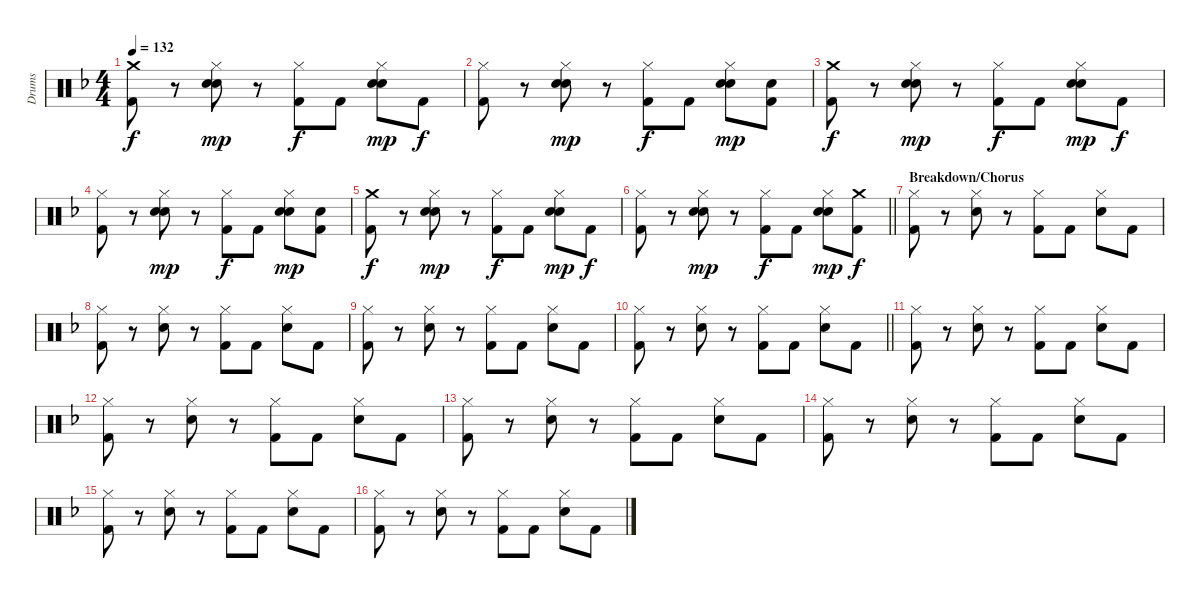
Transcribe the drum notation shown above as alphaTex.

\track ("Drums" "Drums") {instrument percussion}
\staff {score}
\articulation defaults
\ts (4 4)
\tempo 132
\clef neutral
\ks f
("Crash medium (hit)" "Kick (hit) 2").8{dy f} r.8 ("Hi-Hat (closed)" "Hand Clap (hit)" "Snare (hit) 2").8{dy mp} r.8 ("Hi-Hat (closed)" "Kick (hit) 2").8{dy f} "Kick (hit) 2".8 ("Hi-Hat (closed)" "Hand Clap (hit)" "Snare (hit) 2").8{dy mp} "Kick (hit) 2".8{dy f} |
("Hi-Hat (closed)" "Kick (hit) 2").8 r.8 ("Hi-Hat (closed)" "Hand Clap (hit)" "Snare (hit) 2").8{dy mp} r.8 ("Hi-Hat (closed)" "Kick (hit) 2").8{dy f} "Kick (hit) 2".8 ("Hi-Hat (closed)" "Hand Clap (hit)" "Snare (hit) 2").8{dy mp} ("Hand Clap (hit)" "Kick (hit) 2").8 |
("Crash medium (hit)" "Kick (hit) 2").8{dy f} r.8 ("Hi-Hat (closed)" "Hand Clap (hit)" "Snare (hit) 2").8{dy mp} r.8 ("Hi-Hat (closed)" "Kick (hit) 2").8{dy f} "Kick (hit) 2".8 ("Hi-Hat (closed)" "Hand Clap (hit)" "Snare (hit) 2").8{dy mp} "Kick (hit) 2".8{dy f} |
("Hi-Hat (closed)" "Kick (hit) 2").8 r.8 ("Hi-Hat (closed)" "Hand Clap (hit)" "Snare (hit) 2").8{dy mp} r.8 ("Hi-Hat (closed)" "Kick (hit) 2").8{dy f} "Kick (hit) 2".8 ("Hi-Hat (closed)" "Hand Clap (hit)" "Snare (hit) 2").8{dy mp} ("Hand Clap (hit)" "Kick (hit) 2").8 |
("Crash medium (hit)" "Kick (hit) 2").8{dy f} r.8 ("Hi-Hat (closed)" "Hand Clap (hit)" "Snare (hit) 2").8{dy mp} r.8 ("Hi-Hat (closed)" "Kick (hit) 2").8{dy f} "Kick (hit) 2".8 ("Hi-Hat (closed)" "Hand Clap (hit)" "Snare (hit) 2").8{dy mp} "Kick (hit) 2".8{dy f} |
\barLineRight lightlight
("Hi-Hat (closed)" "Kick (hit) 2").8 r.8 ("Hi-Hat (closed)" "Hand Clap (hit)" "Snare (hit) 2").8{dy mp} r.8 ("Hi-Hat (closed)" "Kick (hit) 2").8{dy f} "Kick (hit) 2".8 ("Hi-Hat (closed)" "Hand Clap (hit)" "Snare (hit) 2").8{dy mp} ("Crash medium (hit)" "Kick (hit) 2").8{dy f} |
\section ("" "Breakdown/Chorus")
("Hi-Hat (closed)" "Kick (hit) 2").8 r.8 ("Hi-Hat (closed)" "Snare (hit) 2").8 r.8 ("Hi-Hat (closed)" "Kick (hit) 2").8 "Kick (hit) 2".8 ("Hi-Hat (closed)" "Snare (hit) 2").8 "Kick (hit) 2".8 |
("Hi-Hat (closed)" "Kick (hit) 2").8 r.8 ("Hi-Hat (closed)" "Snare (hit) 2").8 r.8 ("Hi-Hat (closed)" "Kick (hit) 2").8 "Kick (hit) 2".8 ("Hi-Hat (closed)" "Snare (hit) 2").8 "Kick (hit) 2".8 |
("Hi-Hat (closed)" "Kick (hit) 2").8 r.8 ("Hi-Hat (closed)" "Snare (hit) 2").8 r.8 ("Hi-Hat (closed)" "Kick (hit) 2").8 "Kick (hit) 2".8 ("Hi-Hat (closed)" "Snare (hit) 2").8 "Kick (hit) 2".8 |
\barLineRight lightlight
("Hi-Hat (closed)" "Kick (hit) 2").8 r.8 ("Hi-Hat (closed)" "Snare (hit) 2").8 r.8 ("Hi-Hat (closed)" "Kick (hit) 2").8 "Kick (hit) 2".8 ("Hi-Hat (closed)" "Snare (hit) 2").8 "Kick (hit) 2".8 |
("Hi-Hat (closed)" "Kick (hit) 2").8 r.8 ("Hi-Hat (closed)" "Snare (hit) 2").8 r.8 ("Hi-Hat (closed)" "Kick (hit) 2").8 "Kick (hit) 2".8 ("Hi-Hat (closed)" "Snare (hit) 2").8 "Kick (hit) 2".8 |
("Hi-Hat (closed)" "Kick (hit) 2").8 r.8 ("Hi-Hat (closed)" "Snare (hit) 2").8 r.8 ("Hi-Hat (closed)" "Kick (hit) 2").8 "Kick (hit) 2".8 ("Hi-Hat (closed)" "Snare (hit) 2").8 "Kick (hit) 2".8 |
("Hi-Hat (closed)" "Kick (hit) 2").8 r.8 ("Hi-Hat (closed)" "Snare (hit) 2").8 r.8 ("Hi-Hat (closed)" "Kick (hit) 2").8 "Kick (hit) 2".8 ("Hi-Hat (closed)" "Snare (hit) 2").8 "Kick (hit) 2".8 |
("Hi-Hat (closed)" "Kick (hit) 2").8 r.8 ("Hi-Hat (closed)" "Snare (hit) 2").8 r.8 ("Hi-Hat (closed)" "Kick (hit) 2").8 "Kick (hit) 2".8 ("Hi-Hat (closed)" "Snare (hit) 2").8 "Kick (hit) 2".8 |
("Hi-Hat (closed)" "Kick (hit) 2").8 r.8 ("Hi-Hat (closed)" "Snare (hit) 2").8 r.8 ("Hi-Hat (closed)" "Kick (hit) 2").8 "Kick (hit) 2".8 ("Hi-Hat (closed)" "Snare (hit) 2").8 "Kick (hit) 2".8 |
("Hi-Hat (closed)" "Kick (hit) 2").8 r.8 ("Hi-Hat (closed)" "Snare (hit) 2").8 r.8 ("Hi-Hat (closed)" "Kick (hit) 2").8 "Kick (hit) 2".8 ("Hi-Hat (closed)" "Snare (hit) 2").8 "Kick (hit) 2".8
